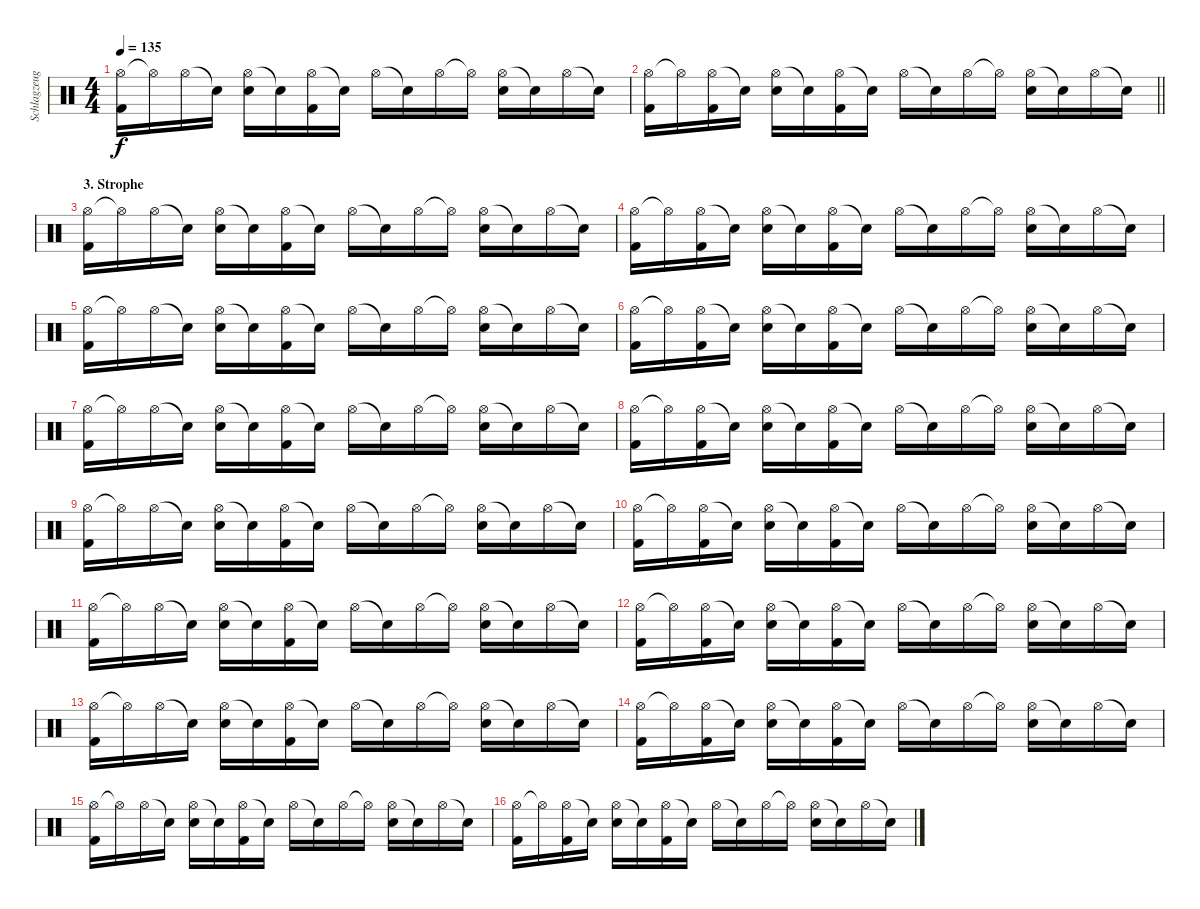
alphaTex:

\track ("Schlagzeug" "Schlagzeug") {instrument percussion}
\staff {score}
\articulation defaults
\ts (4 4)
\tempo 135
\clef neutral
\ks c
("Hi-Hat (open)" "Kick (hit) 2").16{dy f} "Hi-Hat (open)"{t}.16 "Hi-Hat (open)".16 "Snare (hit)"{t}.16 ("Hi-Hat (open)" "Snare (hit) 2").16 "Snare (hit)"{t}.16 ("Hi-Hat (open)" "Kick (hit) 2").16 "Snare (hit)"{t}.16 "Hi-Hat (open)".16 "Snare (hit)"{t}.16 "Hi-Hat (open)".16 "Hi-Hat (open)"{t}.16 ("Hi-Hat (open)" "Snare (hit) 2").16 "Snare (hit)"{t}.16 "Hi-Hat (open)".16 "Snare (hit)"{t}.16 |
\barLineRight lightlight
("Hi-Hat (open)" "Kick (hit) 2").16 "Hi-Hat (open)"{t}.16 ("Hi-Hat (open)" "Kick (hit) 2").16 "Snare (hit)"{t}.16 ("Hi-Hat (open)" "Snare (hit) 2").16 "Snare (hit)"{t}.16 ("Hi-Hat (open)" "Kick (hit) 2").16 "Snare (hit)"{t}.16 "Hi-Hat (open)".16 "Snare (hit)"{t}.16 "Hi-Hat (open)".16 "Hi-Hat (open)"{t}.16 ("Hi-Hat (open)" "Snare (hit) 2").16 "Snare (hit)"{t}.16 "Hi-Hat (open)".16 "Snare (hit)"{t}.16 |
\section ("" "3. Strophe")
("Hi-Hat (open)" "Kick (hit) 2").16 "Hi-Hat (open)"{t}.16 "Hi-Hat (open)".16 "Snare (hit)"{t}.16 ("Hi-Hat (open)" "Snare (hit) 2").16 "Snare (hit)"{t}.16 ("Hi-Hat (open)" "Kick (hit) 2").16 "Snare (hit)"{t}.16 "Hi-Hat (open)".16 "Snare (hit)"{t}.16 "Hi-Hat (open)".16 "Hi-Hat (open)"{t}.16 ("Hi-Hat (open)" "Snare (hit) 2").16 "Snare (hit)"{t}.16 "Hi-Hat (open)".16 "Snare (hit)"{t}.16 |
("Hi-Hat (open)" "Kick (hit) 2").16 "Hi-Hat (open)"{t}.16 ("Hi-Hat (open)" "Kick (hit) 2").16 "Snare (hit)"{t}.16 ("Hi-Hat (open)" "Snare (hit) 2").16 "Snare (hit)"{t}.16 ("Hi-Hat (open)" "Kick (hit) 2").16 "Snare (hit)"{t}.16 "Hi-Hat (open)".16 "Snare (hit)"{t}.16 "Hi-Hat (open)".16 "Hi-Hat (open)"{t}.16 ("Hi-Hat (open)" "Snare (hit) 2").16 "Snare (hit)"{t}.16 "Hi-Hat (open)".16 "Snare (hit)"{t}.16 |
("Hi-Hat (open)" "Kick (hit) 2").16 "Hi-Hat (open)"{t}.16 "Hi-Hat (open)".16 "Snare (hit)"{t}.16 ("Hi-Hat (open)" "Snare (hit) 2").16 "Snare (hit)"{t}.16 ("Hi-Hat (open)" "Kick (hit) 2").16 "Snare (hit)"{t}.16 "Hi-Hat (open)".16 "Snare (hit)"{t}.16 "Hi-Hat (open)".16 "Hi-Hat (open)"{t}.16 ("Hi-Hat (open)" "Snare (hit) 2").16 "Snare (hit)"{t}.16 "Hi-Hat (open)".16 "Snare (hit)"{t}.16 |
("Hi-Hat (open)" "Kick (hit) 2").16 "Hi-Hat (open)"{t}.16 ("Hi-Hat (open)" "Kick (hit) 2").16 "Snare (hit)"{t}.16 ("Hi-Hat (open)" "Snare (hit) 2").16 "Snare (hit)"{t}.16 ("Hi-Hat (open)" "Kick (hit) 2").16 "Snare (hit)"{t}.16 "Hi-Hat (open)".16 "Snare (hit)"{t}.16 "Hi-Hat (open)".16 "Hi-Hat (open)"{t}.16 ("Hi-Hat (open)" "Snare (hit) 2").16 "Snare (hit)"{t}.16 "Hi-Hat (open)".16 "Snare (hit)"{t}.16 |
("Hi-Hat (open)" "Kick (hit) 2").16 "Hi-Hat (open)"{t}.16 "Hi-Hat (open)".16 "Snare (hit)"{t}.16 ("Hi-Hat (open)" "Snare (hit) 2").16 "Snare (hit)"{t}.16 ("Hi-Hat (open)" "Kick (hit) 2").16 "Snare (hit)"{t}.16 "Hi-Hat (open)".16 "Snare (hit)"{t}.16 "Hi-Hat (open)".16 "Hi-Hat (open)"{t}.16 ("Hi-Hat (open)" "Snare (hit) 2").16 "Snare (hit)"{t}.16 "Hi-Hat (open)".16 "Snare (hit)"{t}.16 |
("Hi-Hat (open)" "Kick (hit) 2").16 "Hi-Hat (open)"{t}.16 ("Hi-Hat (open)" "Kick (hit) 2").16 "Snare (hit)"{t}.16 ("Hi-Hat (open)" "Snare (hit) 2").16 "Snare (hit)"{t}.16 ("Hi-Hat (open)" "Kick (hit) 2").16 "Snare (hit)"{t}.16 "Hi-Hat (open)".16 "Snare (hit)"{t}.16 "Hi-Hat (open)".16 "Hi-Hat (open)"{t}.16 ("Hi-Hat (open)" "Snare (hit) 2").16 "Snare (hit)"{t}.16 "Hi-Hat (open)".16 "Snare (hit)"{t}.16 |
("Hi-Hat (open)" "Kick (hit) 2").16 "Hi-Hat (open)"{t}.16 "Hi-Hat (open)".16 "Snare (hit)"{t}.16 ("Hi-Hat (open)" "Snare (hit) 2").16 "Snare (hit)"{t}.16 ("Hi-Hat (open)" "Kick (hit) 2").16 "Snare (hit)"{t}.16 "Hi-Hat (open)".16 "Snare (hit)"{t}.16 "Hi-Hat (open)".16 "Hi-Hat (open)"{t}.16 ("Hi-Hat (open)" "Snare (hit) 2").16 "Snare (hit)"{t}.16 "Hi-Hat (open)".16 "Snare (hit)"{t}.16 |
("Hi-Hat (open)" "Kick (hit) 2").16 "Hi-Hat (open)"{t}.16 ("Hi-Hat (open)" "Kick (hit) 2").16 "Snare (hit)"{t}.16 ("Hi-Hat (open)" "Snare (hit) 2").16 "Snare (hit)"{t}.16 ("Hi-Hat (open)" "Kick (hit) 2").16 "Snare (hit)"{t}.16 "Hi-Hat (open)".16 "Snare (hit)"{t}.16 "Hi-Hat (open)".16 "Hi-Hat (open)"{t}.16 ("Hi-Hat (open)" "Snare (hit) 2").16 "Snare (hit)"{t}.16 "Hi-Hat (open)".16 "Snare (hit)"{t}.16 |
("Hi-Hat (open)" "Kick (hit) 2").16 "Hi-Hat (open)"{t}.16 "Hi-Hat (open)".16 "Snare (hit)"{t}.16 ("Hi-Hat (open)" "Snare (hit) 2").16 "Snare (hit)"{t}.16 ("Hi-Hat (open)" "Kick (hit) 2").16 "Snare (hit)"{t}.16 "Hi-Hat (open)".16 "Snare (hit)"{t}.16 "Hi-Hat (open)".16 "Hi-Hat (open)"{t}.16 ("Hi-Hat (open)" "Snare (hit) 2").16 "Snare (hit)"{t}.16 "Hi-Hat (open)".16 "Snare (hit)"{t}.16 |
("Hi-Hat (open)" "Kick (hit) 2").16 "Hi-Hat (open)"{t}.16 ("Hi-Hat (open)" "Kick (hit) 2").16 "Snare (hit)"{t}.16 ("Hi-Hat (open)" "Snare (hit) 2").16 "Snare (hit)"{t}.16 ("Hi-Hat (open)" "Kick (hit) 2").16 "Snare (hit)"{t}.16 "Hi-Hat (open)".16 "Snare (hit)"{t}.16 "Hi-Hat (open)".16 "Hi-Hat (open)"{t}.16 ("Hi-Hat (open)" "Snare (hit) 2").16 "Snare (hit)"{t}.16 "Hi-Hat (open)".16 "Snare (hit)"{t}.16 |
("Hi-Hat (open)" "Kick (hit) 2").16 "Hi-Hat (open)"{t}.16 "Hi-Hat (open)".16 "Snare (hit)"{t}.16 ("Hi-Hat (open)" "Snare (hit) 2").16 "Snare (hit)"{t}.16 ("Hi-Hat (open)" "Kick (hit) 2").16 "Snare (hit)"{t}.16 "Hi-Hat (open)".16 "Snare (hit)"{t}.16 "Hi-Hat (open)".16 "Hi-Hat (open)"{t}.16 ("Hi-Hat (open)" "Snare (hit) 2").16 "Snare (hit)"{t}.16 "Hi-Hat (open)".16 "Snare (hit)"{t}.16 |
("Hi-Hat (open)" "Kick (hit) 2").16 "Hi-Hat (open)"{t}.16 ("Hi-Hat (open)" "Kick (hit) 2").16 "Snare (hit)"{t}.16 ("Hi-Hat (open)" "Snare (hit) 2").16 "Snare (hit)"{t}.16 ("Hi-Hat (open)" "Kick (hit) 2").16 "Snare (hit)"{t}.16 "Hi-Hat (open)".16 "Snare (hit)"{t}.16 "Hi-Hat (open)".16 "Hi-Hat (open)"{t}.16 ("Hi-Hat (open)" "Snare (hit) 2").16 "Snare (hit)"{t}.16 "Hi-Hat (open)".16 "Snare (hit)"{t}.16 |
("Hi-Hat (open)" "Kick (hit) 2").16 "Hi-Hat (open)"{t}.16 "Hi-Hat (open)".16 "Snare (hit)"{t}.16 ("Hi-Hat (open)" "Snare (hit) 2").16 "Snare (hit)"{t}.16 ("Hi-Hat (open)" "Kick (hit) 2").16 "Snare (hit)"{t}.16 "Hi-Hat (open)".16 "Snare (hit)"{t}.16 "Hi-Hat (open)".16 "Hi-Hat (open)"{t}.16 ("Hi-Hat (open)" "Snare (hit) 2").16 "Snare (hit)"{t}.16 "Hi-Hat (open)".16 "Snare (hit)"{t}.16 |
("Hi-Hat (open)" "Kick (hit) 2").16 "Hi-Hat (open)"{t}.16 ("Hi-Hat (open)" "Kick (hit) 2").16 "Snare (hit)"{t}.16 ("Hi-Hat (open)" "Snare (hit) 2").16 "Snare (hit)"{t}.16 ("Hi-Hat (open)" "Kick (hit) 2").16 "Snare (hit)"{t}.16 "Hi-Hat (open)".16 "Snare (hit)"{t}.16 "Hi-Hat (open)".16 "Hi-Hat (open)"{t}.16 ("Hi-Hat (open)" "Snare (hit) 2").16 "Snare (hit)"{t}.16 "Hi-Hat (open)".16 "Snare (hit)"{t}.16
